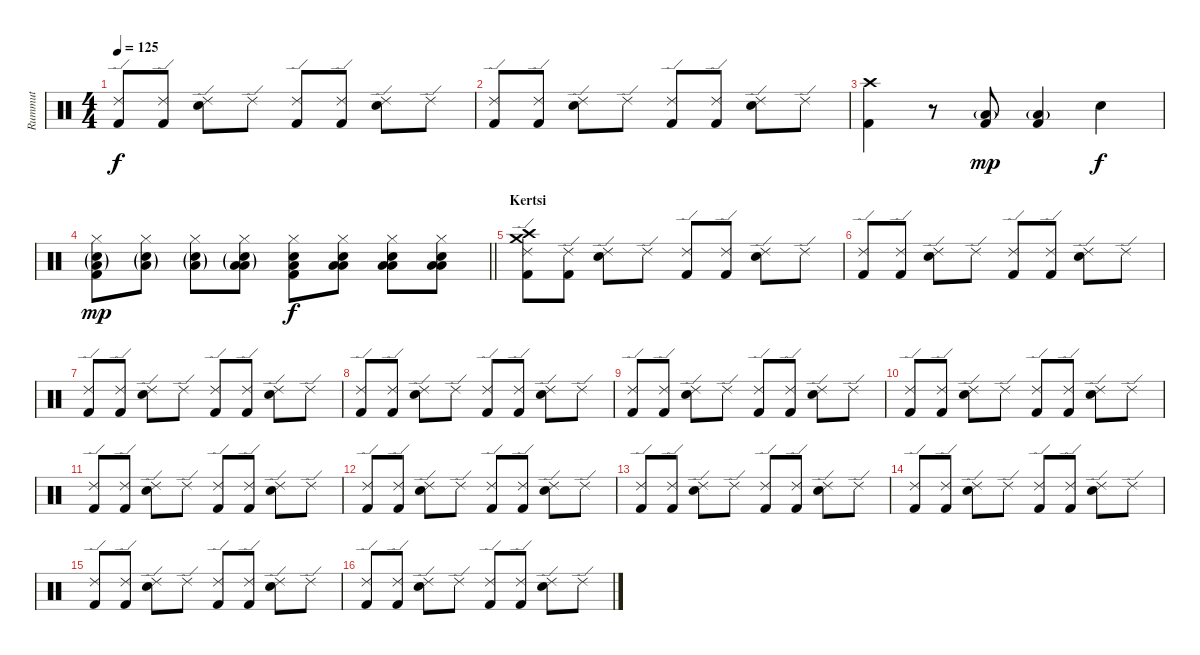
\track ("Rummut" "Rummut") {instrument percussion}
\staff {score}
\articulation defaults
\ts (4 4)
\tempo 125
\clef neutral
\ks c
("Kick (hit) 2" "Ride (edge) 2").8{dy f} ("Kick (hit) 2" "Ride (edge) 2").8 ("Snare (hit) 2" "Ride (edge) 2").8 "Ride (edge) 2".8 ("Kick (hit) 2" "Ride (edge) 2").8 ("Kick (hit) 2" "Ride (edge) 2").8 ("Snare (hit) 2" "Ride (edge) 2").8 "Ride (edge) 2".8 |
("Kick (hit) 2" "Ride (edge) 2").8 ("Kick (hit) 2" "Ride (edge) 2").8 ("Snare (hit) 2" "Ride (edge) 2").8 "Ride (edge) 2".8 ("Kick (hit) 2" "Ride (edge) 2").8 ("Kick (hit) 2" "Ride (edge) 2").8 ("Snare (hit) 2" "Ride (edge) 2").8 "Ride (edge) 2".8 |
("Kick (hit) 2" "Crash high (hit)").4 r.8 ("Low Tom (hit)"{g} "Kick (hit) 2").8{dy mp} ("Low Tom (hit)"{g} "Kick (hit) 2").4 "Snare (hit) 2".4{dy f} |
\barLineRight lightlight
("Low Tom (hit)"{g} "Snare (hit) 2"{g} "Hi-Hat (closed)" "Kick (hit) 2").8{dy mp} ("Low Tom (hit)"{g} "Snare (hit) 2"{g} "Hi-Hat (closed)").8 ("Low Tom (hit)"{g} "Snare (hit) 2"{g} "Hi-Hat (closed)").8 ("Low Tom (hit)"{g} "Snare (hit) 2"{g} "Low Tom (hit)" "Hi-Hat (closed)").8 ("Low Tom (hit)" "Snare (hit) 2" "Hi-Hat (closed)" "Kick (hit) 2").8{dy f} ("Low Tom (hit)" "Snare (hit) 2" "Low Tom (hit)" "Hi-Hat (closed)").8 ("Low Tom (hit)" "Snare (hit) 2" "Low Tom (hit)" "Hi-Hat (closed)").8 ("Low Tom (hit)" "Snare (hit) 2" "Low Tom (hit)" "Hi-Hat (closed)").8 |
\section ("" "Kertsi")
("Crash high (hit)" "Kick (hit) 2" "Ride (edge) 2" "Crash medium (hit)").8 ("Kick (hit) 2" "Ride (edge) 2").8 ("Snare (hit) 2" "Ride (edge) 2").8 "Ride (edge) 2".8 ("Kick (hit) 2" "Ride (edge) 2").8 ("Kick (hit) 2" "Ride (edge) 2").8 ("Snare (hit) 2" "Ride (edge) 2").8 "Ride (edge) 2".8 |
("Kick (hit) 2" "Ride (edge) 2").8 ("Kick (hit) 2" "Ride (edge) 2").8 ("Snare (hit) 2" "Ride (edge) 2").8 "Ride (edge) 2".8 ("Kick (hit) 2" "Ride (edge) 2").8 ("Kick (hit) 2" "Ride (edge) 2").8 ("Snare (hit) 2" "Ride (edge) 2").8 "Ride (edge) 2".8 |
("Kick (hit) 2" "Ride (edge) 2").8 ("Kick (hit) 2" "Ride (edge) 2").8 ("Snare (hit) 2" "Ride (edge) 2").8 "Ride (edge) 2".8 ("Kick (hit) 2" "Ride (edge) 2").8 ("Kick (hit) 2" "Ride (edge) 2").8 ("Snare (hit) 2" "Ride (edge) 2").8 "Ride (edge) 2".8 |
("Kick (hit) 2" "Ride (edge) 2").8 ("Kick (hit) 2" "Ride (edge) 2").8 ("Snare (hit) 2" "Ride (edge) 2").8 "Ride (edge) 2".8 ("Kick (hit) 2" "Ride (edge) 2").8 ("Kick (hit) 2" "Ride (edge) 2").8 ("Snare (hit) 2" "Ride (edge) 2").8 "Ride (edge) 2".8 |
("Kick (hit) 2" "Ride (edge) 2").8 ("Kick (hit) 2" "Ride (edge) 2").8 ("Snare (hit) 2" "Ride (edge) 2").8 "Ride (edge) 2".8 ("Kick (hit) 2" "Ride (edge) 2").8 ("Kick (hit) 2" "Ride (edge) 2").8 ("Snare (hit) 2" "Ride (edge) 2").8 "Ride (edge) 2".8 |
("Kick (hit) 2" "Ride (edge) 2").8 ("Kick (hit) 2" "Ride (edge) 2").8 ("Snare (hit) 2" "Ride (edge) 2").8 "Ride (edge) 2".8 ("Kick (hit) 2" "Ride (edge) 2").8 ("Kick (hit) 2" "Ride (edge) 2").8 ("Snare (hit) 2" "Ride (edge) 2").8 "Ride (edge) 2".8 |
("Kick (hit) 2" "Ride (edge) 2").8 ("Kick (hit) 2" "Ride (edge) 2").8 ("Snare (hit) 2" "Ride (edge) 2").8 "Ride (edge) 2".8 ("Kick (hit) 2" "Ride (edge) 2").8 ("Kick (hit) 2" "Ride (edge) 2").8 ("Snare (hit) 2" "Ride (edge) 2").8 "Ride (edge) 2".8 |
("Kick (hit) 2" "Ride (edge) 2").8 ("Kick (hit) 2" "Ride (edge) 2").8 ("Snare (hit) 2" "Ride (edge) 2").8 "Ride (edge) 2".8 ("Kick (hit) 2" "Ride (edge) 2").8 ("Kick (hit) 2" "Ride (edge) 2").8 ("Snare (hit) 2" "Ride (edge) 2").8 "Ride (edge) 2".8 |
("Kick (hit) 2" "Ride (edge) 2").8 ("Kick (hit) 2" "Ride (edge) 2").8 ("Snare (hit) 2" "Ride (edge) 2").8 "Ride (edge) 2".8 ("Kick (hit) 2" "Ride (edge) 2").8 ("Kick (hit) 2" "Ride (edge) 2").8 ("Snare (hit) 2" "Ride (edge) 2").8 "Ride (edge) 2".8 |
("Kick (hit) 2" "Ride (edge) 2").8 ("Kick (hit) 2" "Ride (edge) 2").8 ("Snare (hit) 2" "Ride (edge) 2").8 "Ride (edge) 2".8 ("Kick (hit) 2" "Ride (edge) 2").8 ("Kick (hit) 2" "Ride (edge) 2").8 ("Snare (hit) 2" "Ride (edge) 2").8 "Ride (edge) 2".8 |
("Kick (hit) 2" "Ride (edge) 2").8 ("Kick (hit) 2" "Ride (edge) 2").8 ("Snare (hit) 2" "Ride (edge) 2").8 "Ride (edge) 2".8 ("Kick (hit) 2" "Ride (edge) 2").8 ("Kick (hit) 2" "Ride (edge) 2").8 ("Snare (hit) 2" "Ride (edge) 2").8 "Ride (edge) 2".8 |
("Kick (hit) 2" "Ride (edge) 2").8 ("Kick (hit) 2" "Ride (edge) 2").8 ("Snare (hit) 2" "Ride (edge) 2").8 "Ride (edge) 2".8 ("Kick (hit) 2" "Ride (edge) 2").8 ("Kick (hit) 2" "Ride (edge) 2").8 ("Snare (hit) 2" "Ride (edge) 2").8 "Ride (edge) 2".8
